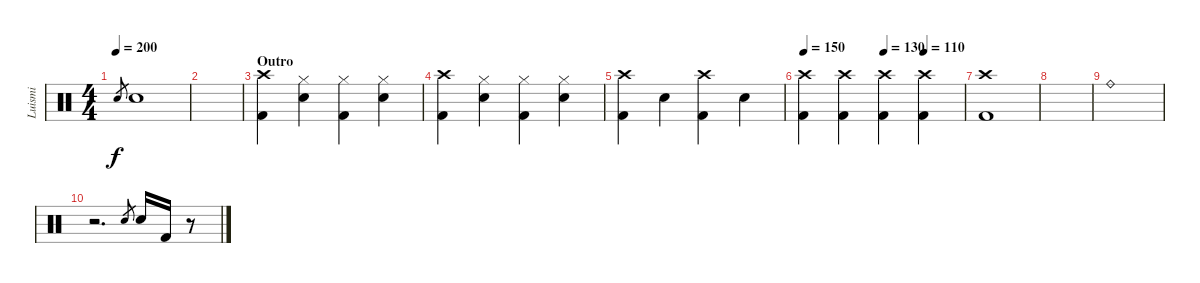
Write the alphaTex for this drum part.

\track ("Luismi" "Luismi") {instrument percussion}
\staff {score}
\articulation defaults
\ts (4 4)
\tempo 200
\clef neutral
\ks c "Electric Snare (hit)".8{gr dy f} "Electric Snare (hit)".1
|
|
\section ("" "Outro")
("Kick (hit) 2" "Crash high (hit)").4 ("Hi-Hat (closed)" "Electric Snare (hit)").4 ("Hi-Hat (closed)" "Kick (hit) 2").4 ("Hi-Hat (closed)" "Electric Snare (hit)").4 |
("Crash high (hit)" "Kick (hit) 2").4 ("Hi-Hat (closed)" "Electric Snare (hit)").4 ("Hi-Hat (closed)" "Kick (hit) 2").4 ("Hi-Hat (closed)" "Electric Snare (hit)").4 |
("Kick (hit) 2" "Crash high (hit)").4 "Electric Snare (hit)".4 ("Crash high (hit)" "Kick (hit) 2").4 "Electric Snare (hit)".4 |
\tempo 150
\tempo (130 0.5)
\tempo (110 0.75)
("Crash high (hit)" "Kick (hit) 2").4 ("Crash high (hit)" "Kick (hit) 2").4 ("Crash high (hit)" "Kick (hit) 2").4 ("Crash high (hit)" "Kick (hit) 2").4 |
("Kick (hit) 2" "Crash high (hit)").1 |
|
"Ride (bell)".1 |
r.2{d} "Electric Snare (hit)".8{gr} "Electric Snare (hit)".16 "Kick (hit) 2".16 r.8
